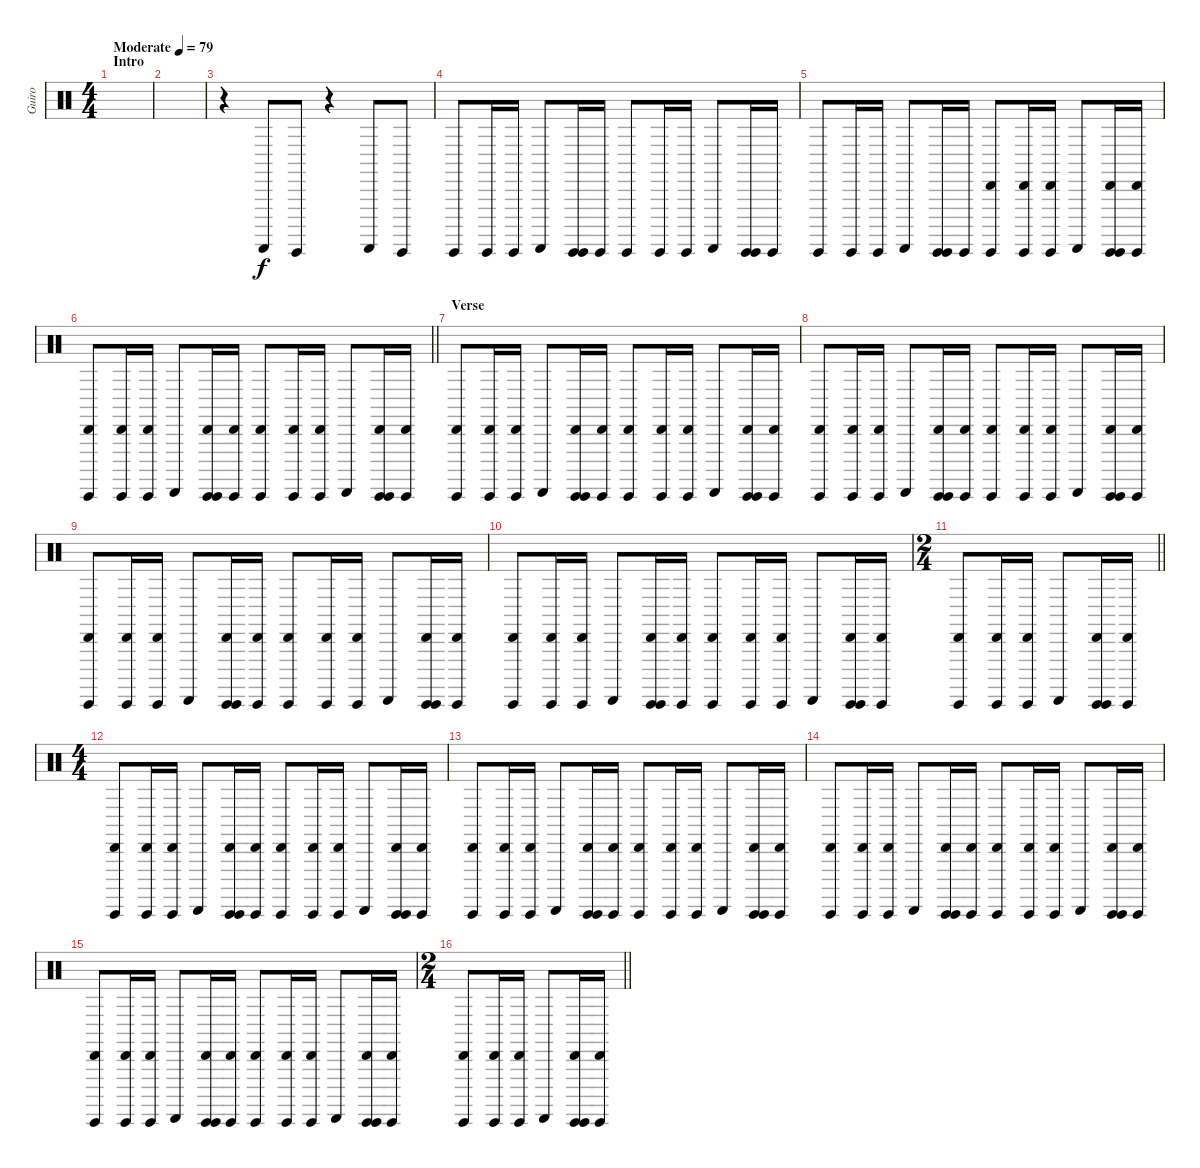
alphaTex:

\track ("Guiro" "Guiro") {instrument percussion}
\staff {score}
\articulation defaults
\ts (4 4)
\section ("" "Intro")
\tempo (79 "Moderate")
\clef neutral
\ks c
|
|
r.4 "Guiro (scrap-return)".8 "Guiro (hit)".8 r.4 "Guiro (scrap-return)".8 "Guiro (hit)".8 |
"Guiro (hit)".8 "Guiro (hit)".16 "Guiro (hit)".16 "Guiro (scrap-return)".8 ("Guiro (hit)" "Guiro (hit)").16 "Guiro (hit)".16 "Guiro (hit)".8 "Guiro (hit)".16 "Guiro (hit)".16 "Guiro (scrap-return)".8 ("Guiro (hit)" "Guiro (hit)").16 "Guiro (hit)".16 |
"Guiro (hit)".8 "Guiro (hit)".16 "Guiro (hit)".16 "Guiro (scrap-return)".8 ("Guiro (hit)" "Guiro (hit)").16 "Guiro (hit)".16 ("Guiro (hit)" "Cabasa (hit)").8 ("Guiro (hit)" "Cabasa (hit)").16 ("Guiro (hit)" "Cabasa (hit)").16 "Guiro (scrap-return)".8 ("Guiro (hit)" "Guiro (hit)" "Cabasa (hit)").16 ("Guiro (hit)" "Cabasa (hit)").16 |
\barLineRight lightlight
("Guiro (hit)" "Cabasa (hit)").8 ("Guiro (hit)" "Cabasa (hit)").16 ("Guiro (hit)" "Cabasa (hit)").16 "Guiro (scrap-return)".8 ("Guiro (hit)" "Guiro (hit)" "Cabasa (hit)").16 ("Guiro (hit)" "Cabasa (hit)").16 ("Guiro (hit)" "Cabasa (hit)").8 ("Guiro (hit)" "Cabasa (hit)").16 ("Guiro (hit)" "Cabasa (hit)").16 "Guiro (scrap-return)".8 ("Guiro (hit)" "Guiro (hit)" "Cabasa (hit)").16 ("Guiro (hit)" "Cabasa (hit)").16 |
\section ("" "Verse")
("Guiro (hit)" "Cabasa (hit)").8 ("Guiro (hit)" "Cabasa (hit)").16 ("Guiro (hit)" "Cabasa (hit)").16 "Guiro (scrap-return)".8 ("Guiro (hit)" "Guiro (hit)" "Cabasa (hit)").16 ("Guiro (hit)" "Cabasa (hit)").16 ("Guiro (hit)" "Cabasa (hit)").8 ("Guiro (hit)" "Cabasa (hit)").16 ("Guiro (hit)" "Cabasa (hit)").16 "Guiro (scrap-return)".8 ("Guiro (hit)" "Guiro (hit)" "Cabasa (hit)").16 ("Guiro (hit)" "Cabasa (hit)").16 |
("Guiro (hit)" "Cabasa (hit)").8 ("Guiro (hit)" "Cabasa (hit)").16 ("Guiro (hit)" "Cabasa (hit)").16 "Guiro (scrap-return)".8 ("Guiro (hit)" "Guiro (hit)" "Cabasa (hit)").16 ("Guiro (hit)" "Cabasa (hit)").16 ("Guiro (hit)" "Cabasa (hit)").8 ("Guiro (hit)" "Cabasa (hit)").16 ("Guiro (hit)" "Cabasa (hit)").16 "Guiro (scrap-return)".8 ("Guiro (hit)" "Guiro (hit)" "Cabasa (hit)").16 ("Guiro (hit)" "Cabasa (hit)").16 |
("Guiro (hit)" "Cabasa (hit)").8 ("Guiro (hit)" "Cabasa (hit)").16 ("Guiro (hit)" "Cabasa (hit)").16 "Guiro (scrap-return)".8 ("Guiro (hit)" "Guiro (hit)" "Cabasa (hit)").16 ("Guiro (hit)" "Cabasa (hit)").16 ("Guiro (hit)" "Cabasa (hit)").8 ("Guiro (hit)" "Cabasa (hit)").16 ("Guiro (hit)" "Cabasa (hit)").16 "Guiro (scrap-return)".8 ("Guiro (hit)" "Guiro (hit)" "Cabasa (hit)").16 ("Guiro (hit)" "Cabasa (hit)").16 |
("Guiro (hit)" "Cabasa (hit)").8 ("Guiro (hit)" "Cabasa (hit)").16 ("Guiro (hit)" "Cabasa (hit)").16 "Guiro (scrap-return)".8 ("Guiro (hit)" "Guiro (hit)" "Cabasa (hit)").16 ("Guiro (hit)" "Cabasa (hit)").16 ("Guiro (hit)" "Cabasa (hit)").8 ("Guiro (hit)" "Cabasa (hit)").16 ("Guiro (hit)" "Cabasa (hit)").16 "Guiro (scrap-return)".8 ("Guiro (hit)" "Guiro (hit)" "Cabasa (hit)").16 ("Guiro (hit)" "Cabasa (hit)").16 |
\ts (2 4)
\barLineRight lightlight
("Guiro (hit)" "Cabasa (hit)").8 ("Guiro (hit)" "Cabasa (hit)").16 ("Guiro (hit)" "Cabasa (hit)").16 "Guiro (scrap-return)".8 ("Guiro (hit)" "Guiro (hit)" "Cabasa (hit)").16 ("Guiro (hit)" "Cabasa (hit)").16 |
\ts (4 4)
\section ("" "")
("Guiro (hit)" "Cabasa (hit)").8 ("Guiro (hit)" "Cabasa (hit)").16 ("Guiro (hit)" "Cabasa (hit)").16 "Guiro (scrap-return)".8 ("Guiro (hit)" "Guiro (hit)" "Cabasa (hit)").16 ("Guiro (hit)" "Cabasa (hit)").16 ("Guiro (hit)" "Cabasa (hit)").8 ("Guiro (hit)" "Cabasa (hit)").16 ("Guiro (hit)" "Cabasa (hit)").16 "Guiro (scrap-return)".8 ("Guiro (hit)" "Guiro (hit)" "Cabasa (hit)").16 ("Guiro (hit)" "Cabasa (hit)").16 |
("Guiro (hit)" "Cabasa (hit)").8 ("Guiro (hit)" "Cabasa (hit)").16 ("Guiro (hit)" "Cabasa (hit)").16 "Guiro (scrap-return)".8 ("Guiro (hit)" "Guiro (hit)" "Cabasa (hit)").16 ("Guiro (hit)" "Cabasa (hit)").16 ("Guiro (hit)" "Cabasa (hit)").8 ("Guiro (hit)" "Cabasa (hit)").16 ("Guiro (hit)" "Cabasa (hit)").16 "Guiro (scrap-return)".8 ("Guiro (hit)" "Guiro (hit)" "Cabasa (hit)").16 ("Guiro (hit)" "Cabasa (hit)").16 |
("Guiro (hit)" "Cabasa (hit)").8 ("Guiro (hit)" "Cabasa (hit)").16 ("Guiro (hit)" "Cabasa (hit)").16 "Guiro (scrap-return)".8 ("Guiro (hit)" "Guiro (hit)" "Cabasa (hit)").16 ("Guiro (hit)" "Cabasa (hit)").16 ("Guiro (hit)" "Cabasa (hit)").8 ("Guiro (hit)" "Cabasa (hit)").16 ("Guiro (hit)" "Cabasa (hit)").16 "Guiro (scrap-return)".8 ("Guiro (hit)" "Guiro (hit)" "Cabasa (hit)").16 ("Guiro (hit)" "Cabasa (hit)").16 |
("Guiro (hit)" "Cabasa (hit)").8 ("Guiro (hit)" "Cabasa (hit)").16 ("Guiro (hit)" "Cabasa (hit)").16 "Guiro (scrap-return)".8 ("Guiro (hit)" "Guiro (hit)" "Cabasa (hit)").16 ("Guiro (hit)" "Cabasa (hit)").16 ("Guiro (hit)" "Cabasa (hit)").8 ("Guiro (hit)" "Cabasa (hit)").16 ("Guiro (hit)" "Cabasa (hit)").16 "Guiro (scrap-return)".8 ("Guiro (hit)" "Guiro (hit)" "Cabasa (hit)").16 ("Guiro (hit)" "Cabasa (hit)").16 |
\ts (2 4)
\barLineRight lightlight
("Guiro (hit)" "Cabasa (hit)").8 ("Guiro (hit)" "Cabasa (hit)").16 ("Guiro (hit)" "Cabasa (hit)").16 "Guiro (scrap-return)".8 ("Guiro (hit)" "Guiro (hit)" "Cabasa (hit)").16 ("Guiro (hit)" "Cabasa (hit)").16
